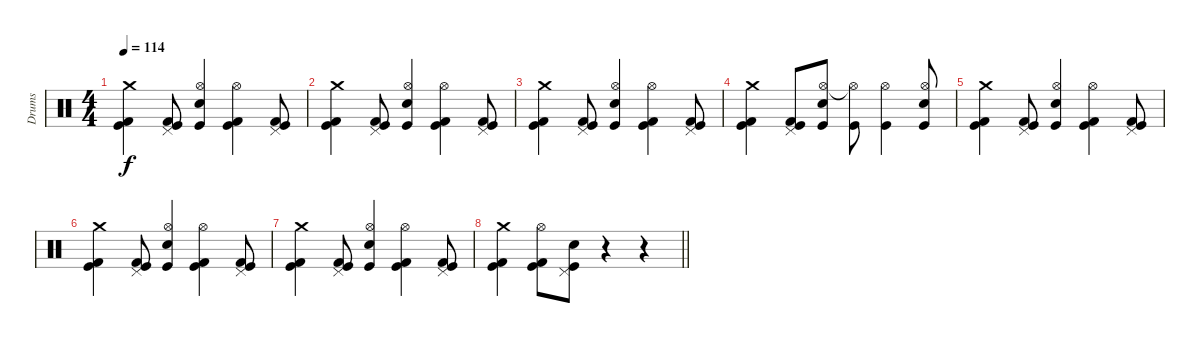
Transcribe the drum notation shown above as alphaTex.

\track ("Drums" "Drums") {instrument percussion}
\staff {score}
\articulation defaults
\ts (4 4)
\tempo 114
\clef neutral
\ks c
("Crash medium (hit)" "Kick (hit) 2" "Kick (hit)").4{dy f} ("Pedal Hi-Hat (hit)" "Kick (hit) 2" "Kick (hit)").8 ("Hi-Hat (open)" "Snare (hit) 2" "Kick (hit)").4 ("Hi-Hat (open)" "Kick (hit) 2" "Kick (hit)").4 ("Pedal Hi-Hat (hit)" "Kick (hit) 2" "Kick (hit)").8 |
("Crash medium (hit)" "Kick (hit) 2" "Kick (hit)").4 ("Pedal Hi-Hat (hit)" "Kick (hit) 2" "Kick (hit)").8 ("Hi-Hat (open)" "Snare (hit) 2" "Kick (hit)").4 ("Hi-Hat (open)" "Kick (hit) 2" "Kick (hit)").4 ("Pedal Hi-Hat (hit)" "Kick (hit) 2" "Kick (hit)").8 |
("Crash medium (hit)" "Kick (hit) 2" "Kick (hit)").4 ("Pedal Hi-Hat (hit)" "Kick (hit) 2" "Kick (hit)").8 ("Hi-Hat (open)" "Snare (hit) 2" "Kick (hit)").4 ("Hi-Hat (open)" "Kick (hit) 2" "Kick (hit)").4 ("Pedal Hi-Hat (hit)" "Kick (hit) 2" "Kick (hit)").8 |
("Crash medium (hit)" "Kick (hit) 2" "Kick (hit)").4 ("Pedal Hi-Hat (hit)" "Kick (hit) 2" "Kick (hit)").8 ("Hi-Hat (open)" "Snare (hit) 2" "Kick (hit)").8 ("Hi-Hat (open)"{t} "Kick (hit)").8 ("Hi-Hat (open)" "Kick (hit)").4 ("Hi-Hat (open)" "Snare (hit) 2" "Kick (hit)").8 |
("Crash medium (hit)" "Kick (hit) 2" "Kick (hit)").4 ("Pedal Hi-Hat (hit)" "Kick (hit) 2" "Kick (hit)").8 ("Hi-Hat (open)" "Snare (hit) 2" "Kick (hit)").4 ("Hi-Hat (open)" "Kick (hit) 2" "Kick (hit)").4 ("Pedal Hi-Hat (hit)" "Kick (hit) 2" "Kick (hit)").8 |
("Crash medium (hit)" "Kick (hit) 2" "Kick (hit)").4 ("Pedal Hi-Hat (hit)" "Kick (hit) 2" "Kick (hit)").8 ("Hi-Hat (open)" "Snare (hit) 2" "Kick (hit)").4 ("Hi-Hat (open)" "Kick (hit) 2" "Kick (hit)").4 ("Pedal Hi-Hat (hit)" "Kick (hit) 2" "Kick (hit)").8 |
("Crash medium (hit)" "Kick (hit) 2" "Kick (hit)").4 ("Pedal Hi-Hat (hit)" "Kick (hit) 2" "Kick (hit)").8 ("Hi-Hat (open)" "Snare (hit) 2" "Kick (hit)").4 ("Hi-Hat (open)" "Kick (hit) 2" "Kick (hit)").4 ("Pedal Hi-Hat (hit)" "Kick (hit) 2" "Kick (hit)").8 |
\barLineRight lightlight
("Crash medium (hit)" "Kick (hit) 2" "Kick (hit)").4 ("Hi-Hat (open)" "Kick (hit) 2" "Kick (hit)").8 ("Pedal Hi-Hat (hit)" "Snare (hit) 2" "Kick (hit)").8 r.4 r.4
